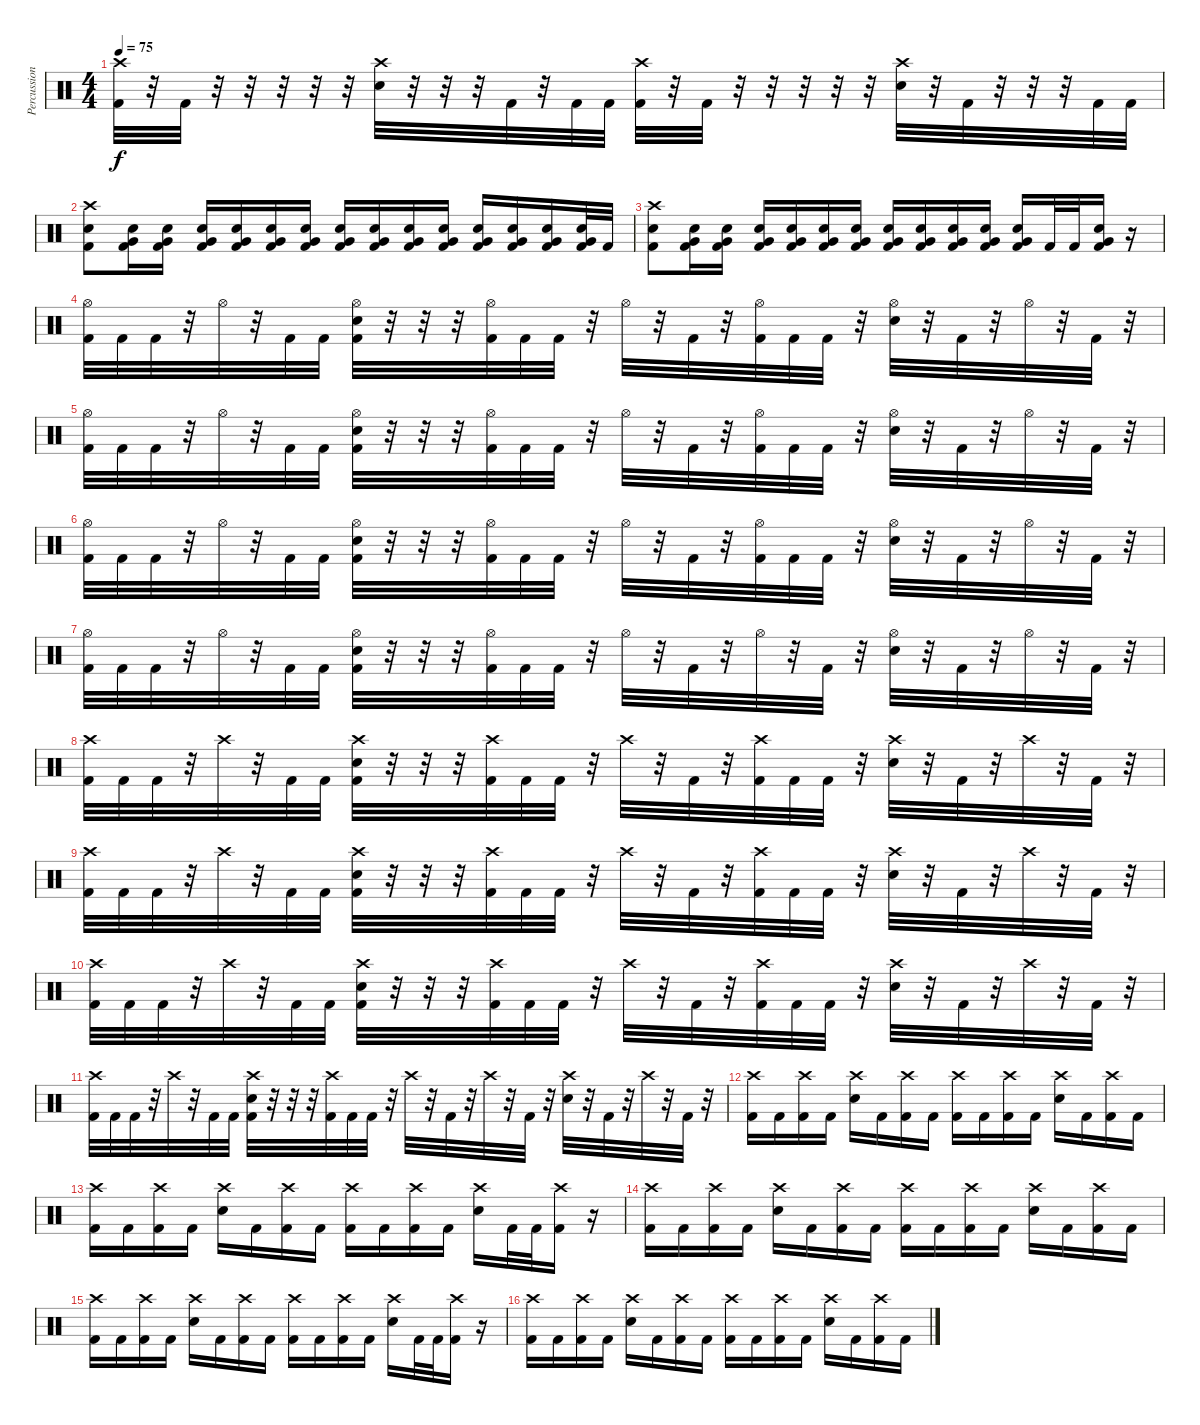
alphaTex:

\track ("Percussion" "Percussion") {instrument percussion}
\staff {score}
\articulation defaults
\ts (4 4)
\tempo 75
\clef neutral
\ks c
("Crash high (hit)" "Kick (hit) 2").32{dy f} r.32 "Kick (hit) 2".32 r.32 r.32 r.32 r.32 r.32 ("Crash high (hit)" "Electric Snare (hit)").32 r.32 r.32 r.32 "Kick (hit) 2".32 r.32 "Kick (hit) 2".32 "Kick (hit) 2".32 ("Crash high (hit)" "Kick (hit) 2").32 r.32 "Kick (hit) 2".32 r.32 r.32 r.32 r.32 r.32 ("Crash high (hit)" "Electric Snare (hit)").32 r.32 "Kick (hit) 2".32 r.32 r.32 r.32 "Kick (hit) 2".32 "Kick (hit) 2".32 |
("Crash high (hit)" "Electric Snare (hit)" "Kick (hit) 2").8 ("Electric Snare (hit)" "Very Low Tom (hit)" "Kick (hit) 2").16{volume 8} ("Electric Snare (hit)" "Very Low Tom (hit)" "Kick (hit) 2").16 ("Electric Snare (hit)" "Very Low Tom (hit)" "Kick (hit) 2").16{volume 16} ("Electric Snare (hit)" "Very Low Tom (hit)" "Kick (hit) 2").16 ("Electric Snare (hit)" "Very Low Tom (hit)" "Kick (hit) 2").16 ("Electric Snare (hit)" "Very Low Tom (hit)" "Kick (hit) 2").16 ("Electric Snare (hit)" "Very Low Tom (hit)" "Kick (hit) 2").16 ("Electric Snare (hit)" "Very Low Tom (hit)" "Kick (hit) 2").16 ("Electric Snare (hit)" "Very Low Tom (hit)" "Kick (hit) 2").16 ("Electric Snare (hit)" "Very Low Tom (hit)" "Kick (hit) 2").16 ("Electric Snare (hit)" "Very Low Tom (hit)" "Kick (hit) 2").16 ("Electric Snare (hit)" "Very Low Tom (hit)" "Kick (hit) 2").16 ("Electric Snare (hit)" "Very Low Tom (hit)" "Kick (hit) 2").16 ("Electric Snare (hit)" "Very Low Tom (hit)" "Kick (hit) 2").32 "Kick (hit) 2".32 |
("Crash high (hit)" "Electric Snare (hit)" "Kick (hit) 2").8 ("Electric Snare (hit)" "Very Low Tom (hit)" "Kick (hit) 2").16{volume 8} ("Electric Snare (hit)" "Very Low Tom (hit)" "Kick (hit) 2").16 ("Electric Snare (hit)" "Very Low Tom (hit)" "Kick (hit) 2").16{volume 16} ("Electric Snare (hit)" "Very Low Tom (hit)" "Kick (hit) 2").16 ("Electric Snare (hit)" "Very Low Tom (hit)" "Kick (hit) 2").16 ("Electric Snare (hit)" "Very Low Tom (hit)" "Kick (hit) 2").16 ("Electric Snare (hit)" "Very Low Tom (hit)" "Kick (hit) 2").16 ("Electric Snare (hit)" "Very Low Tom (hit)" "Kick (hit) 2").16 ("Electric Snare (hit)" "Very Low Tom (hit)" "Kick (hit) 2").16 ("Electric Snare (hit)" "Very Low Tom (hit)" "Kick (hit) 2").16 ("Electric Snare (hit)" "Very Low Tom (hit)" "Kick (hit) 2").16 "Kick (hit) 2".32 "Kick (hit) 2".32 ("Electric Snare (hit)" "Very Low Tom (hit)" "Kick (hit) 2").16 r.16 |
("Hi-Hat (open)" "Kick (hit) 2").32 "Kick (hit) 2".32 "Kick (hit) 2".32 r.32 "Hi-Hat (open)".32 r.32 "Kick (hit) 2".32 "Kick (hit) 2".32 ("Hi-Hat (open)" "Electric Snare (hit)" "Kick (hit) 2").32 r.32 r.32 r.32 ("Hi-Hat (open)" "Kick (hit) 2").32 "Kick (hit) 2".32 "Kick (hit) 2".32 r.32 "Hi-Hat (open)".32 r.32 "Kick (hit) 2".32 r.32 ("Hi-Hat (open)" "Kick (hit) 2").32 "Kick (hit) 2".32 "Kick (hit) 2".32 r.32 ("Hi-Hat (open)" "Electric Snare (hit)").32 r.32 "Kick (hit) 2".32 r.32 "Hi-Hat (open)".32 r.32 "Kick (hit) 2".32 r.32 |
("Hi-Hat (open)" "Kick (hit) 2").32 "Kick (hit) 2".32 "Kick (hit) 2".32 r.32 "Hi-Hat (open)".32 r.32 "Kick (hit) 2".32 "Kick (hit) 2".32 ("Hi-Hat (open)" "Electric Snare (hit)" "Kick (hit) 2").32 r.32 r.32 r.32 ("Hi-Hat (open)" "Kick (hit) 2").32 "Kick (hit) 2".32 "Kick (hit) 2".32 r.32 "Hi-Hat (open)".32 r.32 "Kick (hit) 2".32 r.32 ("Hi-Hat (open)" "Kick (hit) 2").32 "Kick (hit) 2".32 "Kick (hit) 2".32 r.32 ("Hi-Hat (open)" "Electric Snare (hit)").32 r.32 "Kick (hit) 2".32 r.32 "Hi-Hat (open)".32 r.32 "Kick (hit) 2".32 r.32 |
("Hi-Hat (open)" "Kick (hit) 2").32 "Kick (hit) 2".32 "Kick (hit) 2".32 r.32 "Hi-Hat (open)".32 r.32 "Kick (hit) 2".32 "Kick (hit) 2".32 ("Hi-Hat (open)" "Electric Snare (hit)" "Kick (hit) 2").32 r.32 r.32 r.32 ("Hi-Hat (open)" "Kick (hit) 2").32 "Kick (hit) 2".32 "Kick (hit) 2".32 r.32 "Hi-Hat (open)".32 r.32 "Kick (hit) 2".32 r.32 ("Hi-Hat (open)" "Kick (hit) 2").32 "Kick (hit) 2".32 "Kick (hit) 2".32 r.32 ("Hi-Hat (open)" "Electric Snare (hit)").32 r.32 "Kick (hit) 2".32 r.32 "Hi-Hat (open)".32 r.32 "Kick (hit) 2".32 r.32 |
("Hi-Hat (open)" "Kick (hit) 2").32 "Kick (hit) 2".32 "Kick (hit) 2".32 r.32 "Hi-Hat (open)".32 r.32 "Kick (hit) 2".32 "Kick (hit) 2".32 ("Hi-Hat (open)" "Electric Snare (hit)" "Kick (hit) 2").32 r.32 r.32 r.32 ("Hi-Hat (open)" "Kick (hit) 2").32 "Kick (hit) 2".32 "Kick (hit) 2".32 r.32 "Hi-Hat (open)".32 r.32 "Kick (hit) 2".32 r.32 "Hi-Hat (open)".32 r.32 "Kick (hit) 2".32 r.32 ("Hi-Hat (open)" "Electric Snare (hit)").32 r.32 "Kick (hit) 2".32 r.32 "Hi-Hat (open)".32 r.32 "Kick (hit) 2".32 r.32 |
("Crash high (hit)" "Kick (hit) 2").32 "Kick (hit) 2".32 "Kick (hit) 2".32 r.32 "Crash high (hit)".32 r.32 "Kick (hit) 2".32 "Kick (hit) 2".32 ("Crash high (hit)" "Electric Snare (hit)" "Kick (hit) 2").32 r.32 r.32 r.32 ("Crash high (hit)" "Kick (hit) 2").32 "Kick (hit) 2".32 "Kick (hit) 2".32 r.32 "Crash high (hit)".32 r.32 "Kick (hit) 2".32 r.32 ("Crash high (hit)" "Kick (hit) 2").32 "Kick (hit) 2".32 "Kick (hit) 2".32 r.32 ("Crash high (hit)" "Electric Snare (hit)").32 r.32 "Kick (hit) 2".32 r.32 "Crash high (hit)".32 r.32 "Kick (hit) 2".32 r.32 |
("Crash high (hit)" "Kick (hit) 2").32 "Kick (hit) 2".32 "Kick (hit) 2".32 r.32 "Crash high (hit)".32 r.32 "Kick (hit) 2".32 "Kick (hit) 2".32 ("Crash high (hit)" "Electric Snare (hit)" "Kick (hit) 2").32 r.32 r.32 r.32 ("Crash high (hit)" "Kick (hit) 2").32 "Kick (hit) 2".32 "Kick (hit) 2".32 r.32 "Crash high (hit)".32 r.32 "Kick (hit) 2".32 r.32 ("Crash high (hit)" "Kick (hit) 2").32 "Kick (hit) 2".32 "Kick (hit) 2".32 r.32 ("Crash high (hit)" "Electric Snare (hit)").32 r.32 "Kick (hit) 2".32 r.32 "Crash high (hit)".32 r.32 "Kick (hit) 2".32 r.32 |
("Crash high (hit)" "Kick (hit) 2").32 "Kick (hit) 2".32 "Kick (hit) 2".32 r.32 "Crash high (hit)".32 r.32 "Kick (hit) 2".32 "Kick (hit) 2".32 ("Crash high (hit)" "Electric Snare (hit)" "Kick (hit) 2").32 r.32 r.32 r.32 ("Crash high (hit)" "Kick (hit) 2").32 "Kick (hit) 2".32 "Kick (hit) 2".32 r.32 "Crash high (hit)".32 r.32 "Kick (hit) 2".32 r.32 ("Crash high (hit)" "Kick (hit) 2").32 "Kick (hit) 2".32 "Kick (hit) 2".32 r.32 ("Crash high (hit)" "Electric Snare (hit)").32 r.32 "Kick (hit) 2".32 r.32 "Crash high (hit)".32 r.32 "Kick (hit) 2".32 r.32 |
("Crash high (hit)" "Kick (hit) 2").32 "Kick (hit) 2".32 "Kick (hit) 2".32 r.32 "Crash high (hit)".32 r.32 "Kick (hit) 2".32 "Kick (hit) 2".32 ("Crash high (hit)" "Electric Snare (hit)" "Kick (hit) 2").32 r.32 r.32 r.32 ("Crash high (hit)" "Kick (hit) 2").32 "Kick (hit) 2".32 "Kick (hit) 2".32 r.32 "Crash high (hit)".32 r.32 "Kick (hit) 2".32 r.32 "Crash high (hit)".32 r.32 "Kick (hit) 2".32 r.32 ("Crash high (hit)" "Electric Snare (hit)").32 r.32 "Kick (hit) 2".32 r.32 "Crash high (hit)".32 r.32 "Kick (hit) 2".32 r.32 |
("Crash high (hit)" "Kick (hit) 2").16 "Kick (hit) 2".16 ("Crash high (hit)" "Kick (hit) 2").16 "Kick (hit) 2".16 ("Crash high (hit)" "Electric Snare (hit)").16 "Kick (hit) 2".16 ("Crash high (hit)" "Kick (hit) 2").16 "Kick (hit) 2".16 ("Crash high (hit)" "Kick (hit) 2").16 "Kick (hit) 2".16 ("Crash high (hit)" "Kick (hit) 2").16 "Kick (hit) 2".16 ("Crash high (hit)" "Electric Snare (hit)").16 "Kick (hit) 2".16 ("Crash high (hit)" "Kick (hit) 2").16 "Kick (hit) 2".16 |
("Crash high (hit)" "Kick (hit) 2").16 "Kick (hit) 2".16 ("Crash high (hit)" "Kick (hit) 2").16 "Kick (hit) 2".16 ("Crash high (hit)" "Electric Snare (hit)").16 "Kick (hit) 2".16 ("Crash high (hit)" "Kick (hit) 2").16 "Kick (hit) 2".16 ("Crash high (hit)" "Kick (hit) 2").16 "Kick (hit) 2".16 ("Crash high (hit)" "Kick (hit) 2").16 "Kick (hit) 2".16 ("Crash high (hit)" "Electric Snare (hit)").16 "Kick (hit) 2".32 "Kick (hit) 2".32 ("Crash high (hit)" "Kick (hit) 2").16 r.16 |
("Crash high (hit)" "Kick (hit) 2").16 "Kick (hit) 2".16 ("Crash high (hit)" "Kick (hit) 2").16 "Kick (hit) 2".16 ("Crash high (hit)" "Electric Snare (hit)").16 "Kick (hit) 2".16 ("Crash high (hit)" "Kick (hit) 2").16 "Kick (hit) 2".16 ("Crash high (hit)" "Kick (hit) 2").16 "Kick (hit) 2".16 ("Crash high (hit)" "Kick (hit) 2").16 "Kick (hit) 2".16 ("Crash high (hit)" "Electric Snare (hit)").16 "Kick (hit) 2".16 ("Crash high (hit)" "Kick (hit) 2").16 "Kick (hit) 2".16 |
("Crash high (hit)" "Kick (hit) 2").16 "Kick (hit) 2".16 ("Crash high (hit)" "Kick (hit) 2").16 "Kick (hit) 2".16 ("Crash high (hit)" "Electric Snare (hit)").16 "Kick (hit) 2".16 ("Crash high (hit)" "Kick (hit) 2").16 "Kick (hit) 2".16 ("Crash high (hit)" "Kick (hit) 2").16 "Kick (hit) 2".16 ("Crash high (hit)" "Kick (hit) 2").16 "Kick (hit) 2".16 ("Crash high (hit)" "Electric Snare (hit)").16 "Kick (hit) 2".32 "Kick (hit) 2".32 ("Crash high (hit)" "Kick (hit) 2").16 r.16 |
("Crash high (hit)" "Kick (hit) 2").16 "Kick (hit) 2".16 ("Crash high (hit)" "Kick (hit) 2").16 "Kick (hit) 2".16 ("Crash high (hit)" "Electric Snare (hit)").16 "Kick (hit) 2".16 ("Crash high (hit)" "Kick (hit) 2").16 "Kick (hit) 2".16 ("Crash high (hit)" "Kick (hit) 2").16 "Kick (hit) 2".16 ("Crash high (hit)" "Kick (hit) 2").16 "Kick (hit) 2".16 ("Crash high (hit)" "Electric Snare (hit)").16 "Kick (hit) 2".16 ("Crash high (hit)" "Kick (hit) 2").16 "Kick (hit) 2".16
